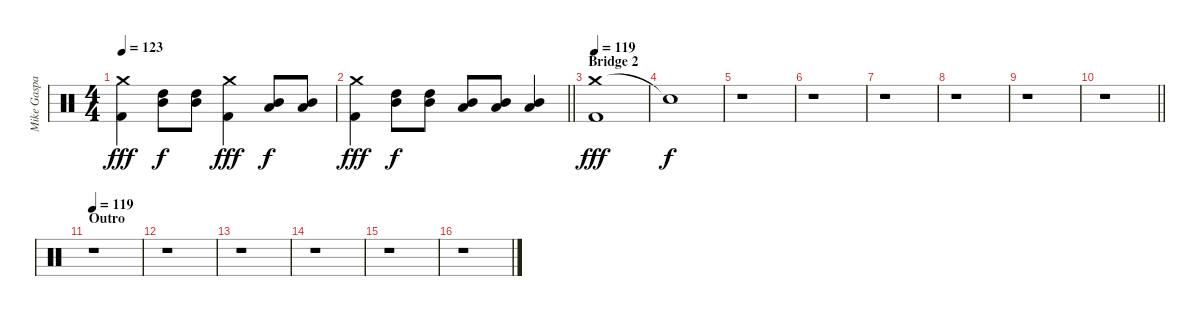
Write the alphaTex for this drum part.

\track ("Mike Gaspar (Drums)" "Mike Gaspa") {instrument percussion}
\staff {score}
\articulation defaults
\ts (4 4)
\tempo 123
\clef neutral
\ks c
("Crash medium (hit)" "Kick (hit) 2").4{dy fff} ("High Tom (hit)" "Mid Tom (hit)").8{dy f} ("High Tom (hit)" "Mid Tom (hit)").8 ("Crash medium (hit)" "Kick (hit) 2").4{dy fff} ("Mid Tom (hit)" "Low Tom (hit)").8{dy f} ("Mid Tom (hit)" "Low Tom (hit)").8 |
\barLineRight lightlight
("Crash medium (hit)" "Kick (hit) 2").4{dy fff} ("High Tom (hit)" "Mid Tom (hit)").8{dy f} ("High Tom (hit)" "Mid Tom (hit)").8 ("Mid Tom (hit)" "Low Tom (hit)").8 ("Mid Tom (hit)" "Low Tom (hit)").8 ("Mid Tom (hit)" "Low Tom (hit)").4 |
\section ("" "Bridge 2")
\tempo 119
("Crash medium (hit)" "Kick (hit) 2").1{dy fff} |
"Snare (hit)"{t}.1{dy f} |
r.1 |
r.1 |
r.1 |
r.1 |
r.1 |
\barLineRight lightlight
r.1 |
\section ("" "Outro")
\tempo 119
r.1 |
r.1 |
r.1 |
r.1 |
r.1 |
r.1
